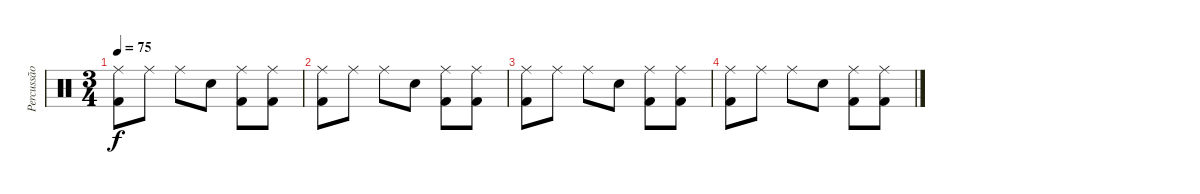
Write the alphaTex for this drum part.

\track ("Percussão" "Percussão") {instrument percussion}
\staff {score}
\articulation defaults
\ts (3 4)
\tempo 75
\clef neutral
\ks c
("Ride (middle)" "Kick (hit) 2").8{dy f} "Ride (middle)".8 "Ride (middle)".8 "Electric Snare (hit)".8 ("Ride (middle)" "Kick (hit) 2").8 ("Ride (middle)" "Kick (hit) 2").8 |
("Ride (middle)" "Kick (hit) 2").8 "Ride (middle)".8 "Ride (middle)".8 "Electric Snare (hit)".8 ("Ride (middle)" "Kick (hit) 2").8 ("Ride (middle)" "Kick (hit) 2").8 |
("Ride (middle)" "Kick (hit) 2").8 "Ride (middle)".8 "Ride (middle)".8 "Electric Snare (hit)".8 ("Ride (middle)" "Kick (hit) 2").8 ("Ride (middle)" "Kick (hit) 2").8 |
("Ride (middle)" "Kick (hit) 2").8 "Ride (middle)".8 "Ride (middle)".8 "Electric Snare (hit)".8 ("Ride (middle)" "Kick (hit) 2").8 ("Ride (middle)" "Kick (hit) 2").8
